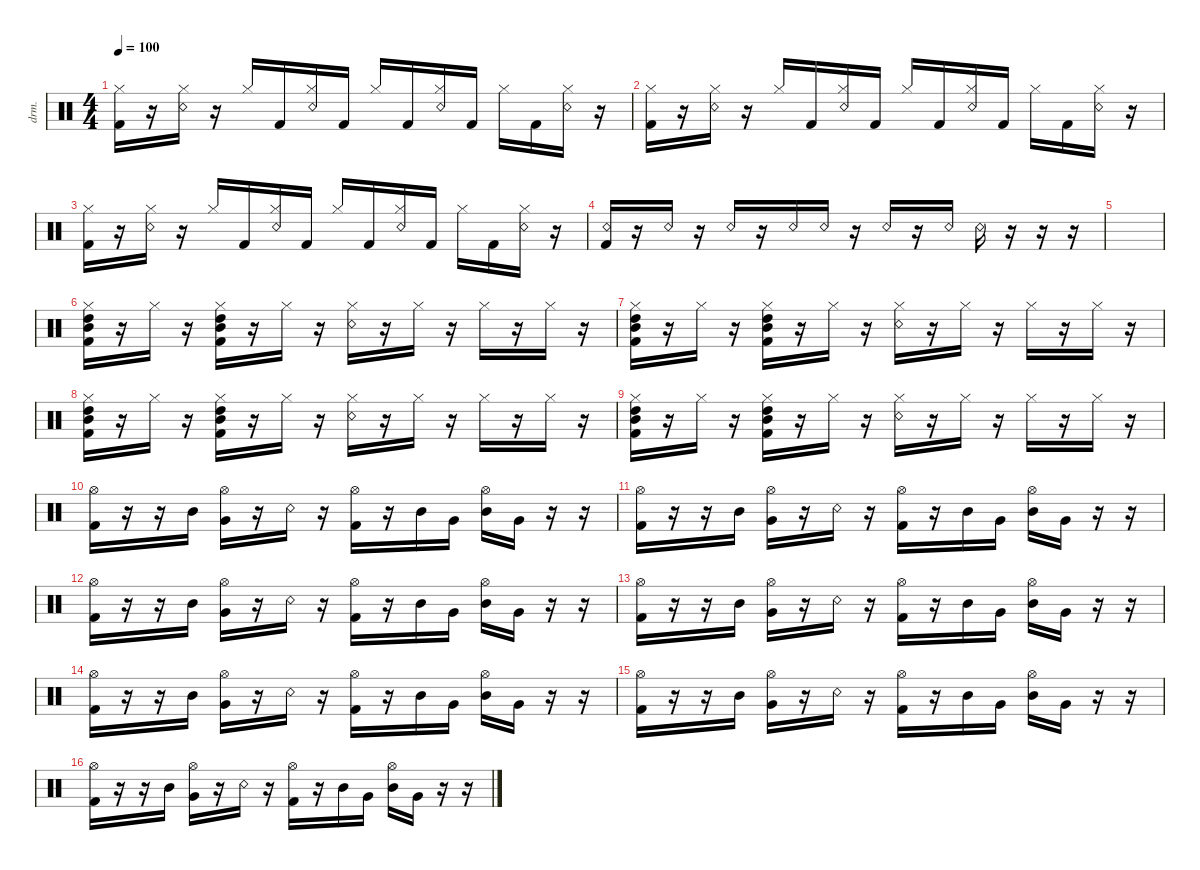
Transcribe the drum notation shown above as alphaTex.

\defaultSystemsLayout 4
\hideDynamics
\bracketExtendMode nobrackets
\otherSystemsTrackNameOrientation horizontal
\track ("Drumkit" "drm.") {instrument percussion}
\staff {score}
\articulation defaults
\ts (4 4)
\tempo 100
\clef neutral
\ks c
("Hi-Hat (closed)" "Kick (hit) 2").16{dy mf beam Down} r.16{beam Down} ("Hi-Hat (closed)" "Snare (rim shot)").16{beam Down} r.16{beam Down} "Hi-Hat (closed)".16{beam Up} "Kick (hit) 2".16{beam Up} ("Hi-Hat (closed)" "Snare (rim shot)").16{beam Up} "Kick (hit) 2".16{beam Up} "Hi-Hat (closed)".16{beam Up} "Kick (hit) 2".16{beam Up} ("Hi-Hat (closed)" "Snare (rim shot)").16{beam Up} "Kick (hit) 2".16{beam Up} "Hi-Hat (closed)".16{beam Down} "Kick (hit) 2".16{beam Down} ("Hi-Hat (closed)" "Snare (rim shot)").16{beam Down} r.16{beam Down} |
("Hi-Hat (closed)" "Kick (hit) 2").16{beam Down} r.16{beam Down} ("Hi-Hat (closed)" "Snare (rim shot)").16{beam Down} r.16{beam Down} "Hi-Hat (closed)".16{beam Up} "Kick (hit) 2".16{beam Up} ("Hi-Hat (closed)" "Snare (rim shot)").16{beam Up} "Kick (hit) 2".16{beam Up} "Hi-Hat (closed)".16{beam Up} "Kick (hit) 2".16{beam Up} ("Hi-Hat (closed)" "Snare (rim shot)").16{beam Up} "Kick (hit) 2".16{beam Up} "Hi-Hat (closed)".16{beam Down} "Kick (hit) 2".16{beam Down} ("Hi-Hat (closed)" "Snare (rim shot)").16{beam Down} r.16{beam Down} |
("Hi-Hat (closed)" "Kick (hit) 2").16{beam Down} r.16{beam Down} ("Hi-Hat (closed)" "Snare (rim shot)").16{beam Down} r.16{beam Down} "Hi-Hat (closed)".16{beam Up} "Kick (hit) 2".16{beam Up} ("Hi-Hat (closed)" "Snare (rim shot)").16{beam Up} "Kick (hit) 2".16{beam Up} "Hi-Hat (closed)".16{beam Up} "Kick (hit) 2".16{beam Up} ("Hi-Hat (closed)" "Snare (rim shot)").16{beam Up} "Kick (hit) 2".16{beam Up} "Hi-Hat (closed)".16{beam Down} "Kick (hit) 2".16{beam Down} ("Hi-Hat (closed)" "Snare (rim shot)").16{beam Down} r.16{beam Down} |
("Kick (hit) 2" "Snare (rim shot)").16{beam Up} r.16{beam Up} "Snare (rim shot)".16{beam Up} r.16{beam Up} "Snare (rim shot)".16{beam Up} r.16{beam Up} "Snare (rim shot)".16{beam Up} "Snare (rim shot)".16{beam Up} r.16{beam Up} "Snare (rim shot)".16{beam Up} r.16{beam Up} "Snare (rim shot)".16{beam Up} "Snare (rim shot)".16{beam Down} r.16{beam Down} r.16{beam Down} r.16{beam Down} |
|
("Hi-Hat (closed)" "Kick (hit) 2" "High Tom (hit)" "Mid Tom (hit)").16{beam Down} r.16{beam Down} "Hi-Hat (closed)".16{beam Down} r.16{beam Down} ("Hi-Hat (closed)" "Kick (hit) 2" "Mid Tom (hit)" "High Tom (hit)").16{beam Down} r.16{beam Down} "Hi-Hat (closed)".16{beam Down} r.16{beam Down} ("Hi-Hat (closed)" "Snare (rim shot)").16{beam Down} r.16{beam Down} "Hi-Hat (closed)".16{beam Down} r.16{beam Down} "Hi-Hat (closed)".16{beam Down} r.16{beam Down} "Hi-Hat (closed)".16{beam Down} r.16{beam Down} |
("Hi-Hat (closed)" "Kick (hit) 2" "High Tom (hit)" "Mid Tom (hit)").16{beam Down} r.16{beam Down} "Hi-Hat (closed)".16{beam Down} r.16{beam Down} ("Hi-Hat (closed)" "Kick (hit) 2" "Mid Tom (hit)" "High Tom (hit)").16{beam Down} r.16{beam Down} "Hi-Hat (closed)".16{beam Down} r.16{beam Down} ("Hi-Hat (closed)" "Snare (rim shot)").16{beam Down} r.16{beam Down} "Hi-Hat (closed)".16{beam Down} r.16{beam Down} "Hi-Hat (closed)".16{beam Down} r.16{beam Down} "Hi-Hat (closed)".16{beam Down} r.16{beam Down} |
("Hi-Hat (closed)" "Kick (hit) 2" "High Tom (hit)" "Mid Tom (hit)").16{beam Down} r.16{beam Down} "Hi-Hat (closed)".16{beam Down} r.16{beam Down} ("Hi-Hat (closed)" "Kick (hit) 2" "Mid Tom (hit)" "High Tom (hit)").16{beam Down} r.16{beam Down} "Hi-Hat (closed)".16{beam Down} r.16{beam Down} ("Hi-Hat (closed)" "Snare (rim shot)").16{beam Down} r.16{beam Down} "Hi-Hat (closed)".16{beam Down} r.16{beam Down} "Hi-Hat (closed)".16{beam Down} r.16{beam Down} "Hi-Hat (closed)".16{beam Down} r.16{beam Down} |
("Hi-Hat (closed)" "Kick (hit) 2" "High Tom (hit)" "Mid Tom (hit)").16{beam Down} r.16{beam Down} "Hi-Hat (closed)".16{beam Down} r.16{beam Down} ("Hi-Hat (closed)" "Kick (hit) 2" "Mid Tom (hit)" "High Tom (hit)").16{beam Down} r.16{beam Down} "Hi-Hat (closed)".16{beam Down} r.16{beam Down} ("Hi-Hat (closed)" "Snare (rim shot)").16{beam Down} r.16{beam Down} "Hi-Hat (closed)".16{beam Down} r.16{beam Down} "Hi-Hat (closed)".16{beam Down} r.16{beam Down} "Hi-Hat (closed)".16{beam Down} r.16{beam Down} |
("Hi-Hat (open)" "Kick (hit) 2").16{beam Down} r.16{beam Down} r.16{beam Down} "Mid Tom (hit)".16{beam Down} ("Very Low Tom (hit)" "Hi-Hat (open)").16{beam Down} r.16{beam Down} "Snare (rim shot)".16{beam Down} r.16{beam Down} ("Hi-Hat (open)" "Kick (hit) 2").16{beam Down} r.16{beam Down} "Mid Tom (hit)".16{beam Down} "Very Low Tom (hit)".16{beam Down} ("Mid Tom (hit)" "Hi-Hat (open)").16{beam Down} "Very Low Tom (hit)".16{beam Down} r.16{beam Down} r.16{beam Down} |
("Hi-Hat (open)" "Kick (hit) 2").16{beam Down} r.16{beam Down} r.16{beam Down} "Mid Tom (hit)".16{beam Down} ("Very Low Tom (hit)" "Hi-Hat (open)").16{beam Down} r.16{beam Down} "Snare (rim shot)".16{beam Down} r.16{beam Down} ("Hi-Hat (open)" "Kick (hit) 2").16{beam Down} r.16{beam Down} "Mid Tom (hit)".16{beam Down} "Very Low Tom (hit)".16{beam Down} ("Mid Tom (hit)" "Hi-Hat (open)").16{beam Down} "Very Low Tom (hit)".16{beam Down} r.16{beam Down} r.16{beam Down} |
("Hi-Hat (open)" "Kick (hit) 2").16{beam Down} r.16{beam Down} r.16{beam Down} "Mid Tom (hit)".16{beam Down} ("Very Low Tom (hit)" "Hi-Hat (open)").16{beam Down} r.16{beam Down} "Snare (rim shot)".16{beam Down} r.16{beam Down} ("Hi-Hat (open)" "Kick (hit) 2").16{beam Down} r.16{beam Down} "Mid Tom (hit)".16{beam Down} "Very Low Tom (hit)".16{beam Down} ("Mid Tom (hit)" "Hi-Hat (open)").16{beam Down} "Very Low Tom (hit)".16{beam Down} r.16{beam Down} r.16{beam Down} |
("Hi-Hat (open)" "Kick (hit) 2").16{beam Down} r.16{beam Down} r.16{beam Down} "Mid Tom (hit)".16{beam Down} ("Very Low Tom (hit)" "Hi-Hat (open)").16{beam Down} r.16{beam Down} "Snare (rim shot)".16{beam Down} r.16{beam Down} ("Hi-Hat (open)" "Kick (hit) 2").16{beam Down} r.16{beam Down} "Mid Tom (hit)".16{beam Down} "Very Low Tom (hit)".16{beam Down} ("Mid Tom (hit)" "Hi-Hat (open)").16{beam Down} "Very Low Tom (hit)".16{beam Down} r.16{beam Down} r.16{beam Down} |
("Hi-Hat (open)" "Kick (hit) 2").16{beam Down} r.16{beam Down} r.16{beam Down} "Mid Tom (hit)".16{beam Down} ("Very Low Tom (hit)" "Hi-Hat (open)").16{beam Down} r.16{beam Down} "Snare (rim shot)".16{beam Down} r.16{beam Down} ("Hi-Hat (open)" "Kick (hit) 2").16{beam Down} r.16{beam Down} "Mid Tom (hit)".16{beam Down} "Very Low Tom (hit)".16{beam Down} ("Mid Tom (hit)" "Hi-Hat (open)").16{beam Down} "Very Low Tom (hit)".16{beam Down} r.16{beam Down} r.16{beam Down} |
("Hi-Hat (open)" "Kick (hit) 2").16{beam Down} r.16{beam Down} r.16{beam Down} "Mid Tom (hit)".16{beam Down} ("Very Low Tom (hit)" "Hi-Hat (open)").16{beam Down} r.16{beam Down} "Snare (rim shot)".16{beam Down} r.16{beam Down} ("Hi-Hat (open)" "Kick (hit) 2").16{beam Down} r.16{beam Down} "Mid Tom (hit)".16{beam Down} "Very Low Tom (hit)".16{beam Down} ("Mid Tom (hit)" "Hi-Hat (open)").16{beam Down} "Very Low Tom (hit)".16{beam Down} r.16{beam Down} r.16{beam Down} |
("Hi-Hat (open)" "Kick (hit) 2").16{beam Down} r.16{beam Down} r.16{beam Down} "Mid Tom (hit)".16{beam Down} ("Very Low Tom (hit)" "Hi-Hat (open)").16{beam Down} r.16{beam Down} "Snare (rim shot)".16{beam Down} r.16{beam Down} ("Hi-Hat (open)" "Kick (hit) 2").16{beam Down} r.16{beam Down} "Mid Tom (hit)".16{beam Down} "Very Low Tom (hit)".16{beam Down} ("Mid Tom (hit)" "Hi-Hat (open)").16{beam Down} "Very Low Tom (hit)".16{beam Down} r.16{beam Down} r.16{beam Down}
